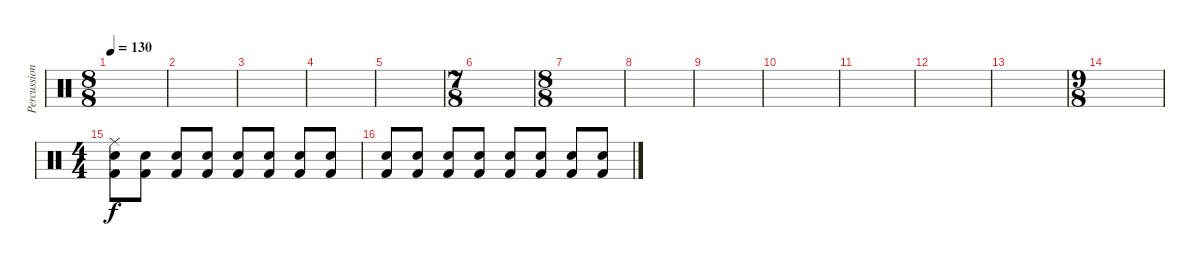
\track ("Percussion" "Percussion") {instrument percussion}
\staff {score}
\articulation defaults
\ts (8 8)
\tempo 130
\clef neutral
\ks c
|
|
|
|
|
\ts (7 8)
|
\ts (8 8)
|
|
|
|
|
|
|
\ts (9 8)
|
\ts (4 4)
("Ride (middle)" "Electric Snare (hit)" "Kick (hit) 2").8 ("Electric Snare (hit)" "Kick (hit) 2").8 ("Electric Snare (hit)" "Kick (hit) 2").8 ("Electric Snare (hit)" "Kick (hit) 2").8 ("Electric Snare (hit)" "Kick (hit) 2").8 ("Electric Snare (hit)" "Kick (hit) 2").8 ("Electric Snare (hit)" "Kick (hit) 2").8 ("Electric Snare (hit)" "Kick (hit) 2").8 |
("Electric Snare (hit)" "Kick (hit) 2").8 ("Electric Snare (hit)" "Kick (hit) 2").8 ("Electric Snare (hit)" "Kick (hit) 2").8 ("Electric Snare (hit)" "Kick (hit) 2").8 ("Electric Snare (hit)" "Kick (hit) 2").8 ("Electric Snare (hit)" "Kick (hit) 2").8 ("Electric Snare (hit)" "Kick (hit) 2").8 ("Electric Snare (hit)" "Kick (hit) 2").8
